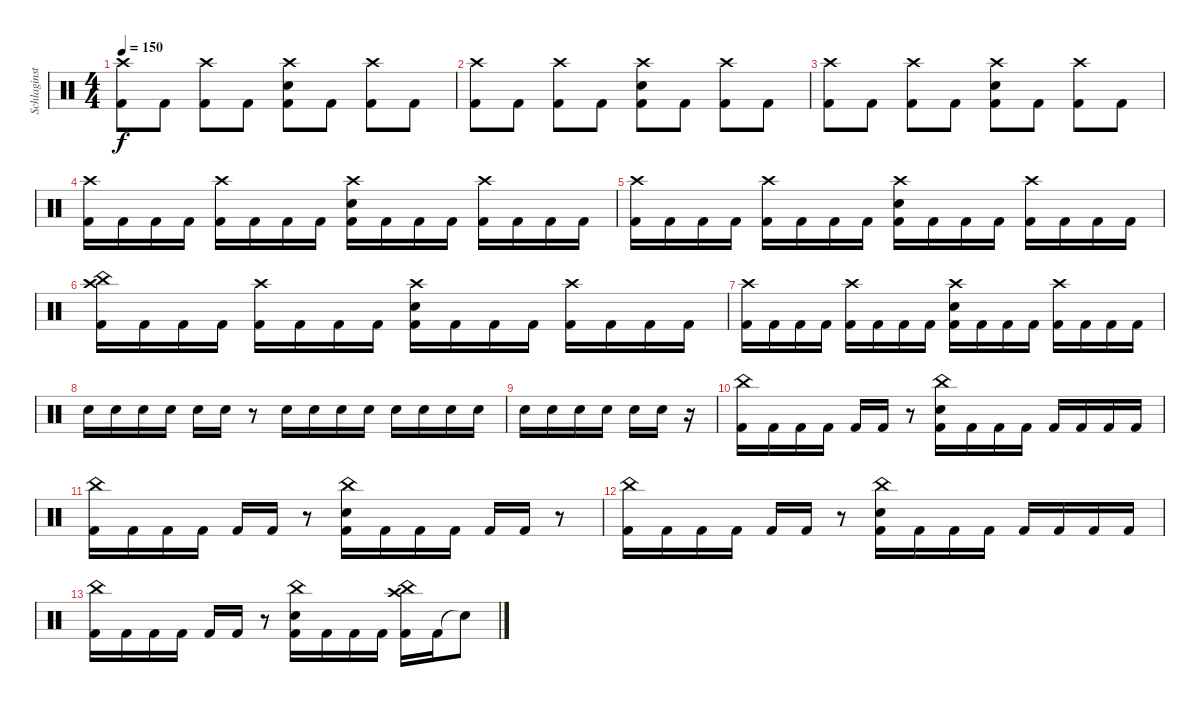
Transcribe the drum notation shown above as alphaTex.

\track ("Schlaginstrumente - Auswahl" "Schlaginst") {instrument percussion}
\staff {score}
\articulation defaults
\ts (4 4)
\tempo 150
\clef neutral
\ks c
("Crash high (hit)" "Kick (hit) 2").8{dy f} "Kick (hit) 2".8 ("Crash high (hit)" "Kick (hit) 2").8 "Kick (hit) 2".8 ("Crash high (hit)" "Snare (hit) 2" "Kick (hit) 2").8 "Kick (hit) 2".8 ("Crash high (hit)" "Kick (hit) 2").8 "Kick (hit) 2".8 |
("Crash high (hit)" "Kick (hit) 2").8 "Kick (hit) 2".8 ("Crash high (hit)" "Kick (hit) 2").8 "Kick (hit) 2".8 ("Crash high (hit)" "Snare (hit) 2" "Kick (hit) 2").8 "Kick (hit) 2".8 ("Crash high (hit)" "Kick (hit) 2").8 "Kick (hit) 2".8 |
("Crash high (hit)" "Kick (hit) 2").8 "Kick (hit) 2".8 ("Crash high (hit)" "Kick (hit) 2").8 "Kick (hit) 2".8 ("Crash high (hit)" "Snare (hit) 2" "Kick (hit) 2").8 "Kick (hit) 2".8 ("Crash high (hit)" "Kick (hit) 2").8 "Kick (hit) 2".8 |
("Crash high (hit)" "Kick (hit) 2").16 "Kick (hit) 2".16 "Kick (hit) 2".16 "Kick (hit) 2".16 ("Crash high (hit)" "Kick (hit) 2").16 "Kick (hit) 2".16 "Kick (hit) 2".16 "Kick (hit) 2".16 ("Crash high (hit)" "Snare (hit) 2" "Kick (hit) 2").16 "Kick (hit) 2".16 "Kick (hit) 2".16 "Kick (hit) 2".16 ("Crash high (hit)" "Kick (hit) 2").16 "Kick (hit) 2".16 "Kick (hit) 2".16 "Kick (hit) 2".16 |
("Crash high (hit)" "Kick (hit) 2").16 "Kick (hit) 2".16 "Kick (hit) 2".16 "Kick (hit) 2".16 ("Crash high (hit)" "Kick (hit) 2").16 "Kick (hit) 2".16 "Kick (hit) 2".16 "Kick (hit) 2".16 ("Crash high (hit)" "Snare (hit) 2" "Kick (hit) 2").16 "Kick (hit) 2".16 "Kick (hit) 2".16 "Kick (hit) 2".16 ("Crash high (hit)" "Kick (hit) 2").16 "Kick (hit) 2".16 "Kick (hit) 2".16 "Kick (hit) 2".16 |
("China (hit)" "Crash high (hit)" "Kick (hit) 2").16 "Kick (hit) 2".16 "Kick (hit) 2".16 "Kick (hit) 2".16 ("Crash high (hit)" "Kick (hit) 2").16 "Kick (hit) 2".16 "Kick (hit) 2".16 "Kick (hit) 2".16 ("Crash high (hit)" "Snare (hit) 2" "Kick (hit) 2").16 "Kick (hit) 2".16 "Kick (hit) 2".16 "Kick (hit) 2".16 ("Crash high (hit)" "Kick (hit) 2").16 "Kick (hit) 2".16 "Kick (hit) 2".16 "Kick (hit) 2".16 |
("Crash high (hit)" "Kick (hit) 2").16 "Kick (hit) 2".16 "Kick (hit) 2".16 "Kick (hit) 2".16 ("Crash high (hit)" "Kick (hit) 2").16 "Kick (hit) 2".16 "Kick (hit) 2".16 "Kick (hit) 2".16 ("Crash high (hit)" "Snare (hit) 2" "Kick (hit) 2").16 "Kick (hit) 2".16 "Kick (hit) 2".16 "Kick (hit) 2".16 ("Crash high (hit)" "Kick (hit) 2").16 "Kick (hit) 2".16 "Kick (hit) 2".16 "Kick (hit) 2".16 |
"Snare (hit) 2".16 "Snare (hit) 2".16 "Snare (hit) 2".16 "Snare (hit) 2".16 "Snare (hit) 2".16 "Snare (hit) 2".16 r.8 "Snare (hit) 2".16 "Snare (hit) 2".16 "Snare (hit) 2".16 "Snare (hit) 2".16 "Snare (hit) 2".16 "Snare (hit) 2".16 "Snare (hit) 2".16 "Snare (hit) 2".16 |
"Snare (hit) 2".16 "Snare (hit) 2".16 "Snare (hit) 2".16 "Snare (hit) 2".16 "Snare (hit) 2".16 "Snare (hit) 2".16 r.16 |
("China (hit)" "Kick (hit) 2").16 "Kick (hit) 2".16 "Kick (hit) 2".16 "Kick (hit) 2".16 "Kick (hit) 2".16 "Kick (hit) 2".16 r.8 ("China (hit)" "Snare (hit) 2" "Kick (hit) 2").16 "Kick (hit) 2".16 "Kick (hit) 2".16 "Kick (hit) 2".16 "Kick (hit) 2".16 "Kick (hit) 2".16 "Kick (hit) 2".16 "Kick (hit) 2".16 |
("China (hit)" "Kick (hit) 2").16 "Kick (hit) 2".16 "Kick (hit) 2".16 "Kick (hit) 2".16 "Kick (hit) 2".16 "Kick (hit) 2".16 r.8 ("China (hit)" "Snare (hit) 2" "Kick (hit) 2").16 "Kick (hit) 2".16 "Kick (hit) 2".16 "Kick (hit) 2".16 "Kick (hit) 2".16 "Kick (hit) 2".16 r.8 |
("China (hit)" "Kick (hit) 2").16 "Kick (hit) 2".16 "Kick (hit) 2".16 "Kick (hit) 2".16 "Kick (hit) 2".16 "Kick (hit) 2".16 r.8 ("China (hit)" "Snare (hit) 2" "Kick (hit) 2").16 "Kick (hit) 2".16 "Kick (hit) 2".16 "Kick (hit) 2".16 "Kick (hit) 2".16 "Kick (hit) 2".16 "Kick (hit) 2".16 "Kick (hit) 2".16 |
("China (hit)" "Kick (hit) 2").16 "Kick (hit) 2".16 "Kick (hit) 2".16 "Kick (hit) 2".16 "Kick (hit) 2".16 "Kick (hit) 2".16 r.8 ("China (hit)" "Snare (hit) 2" "Kick (hit) 2").16 "Kick (hit) 2".16 "Kick (hit) 2".16 "Kick (hit) 2".16 ("China (hit)" "Crash high (hit)" "Kick (hit) 2").16 "Kick (hit) 2".16 "Snare (hit)"{t}.8
